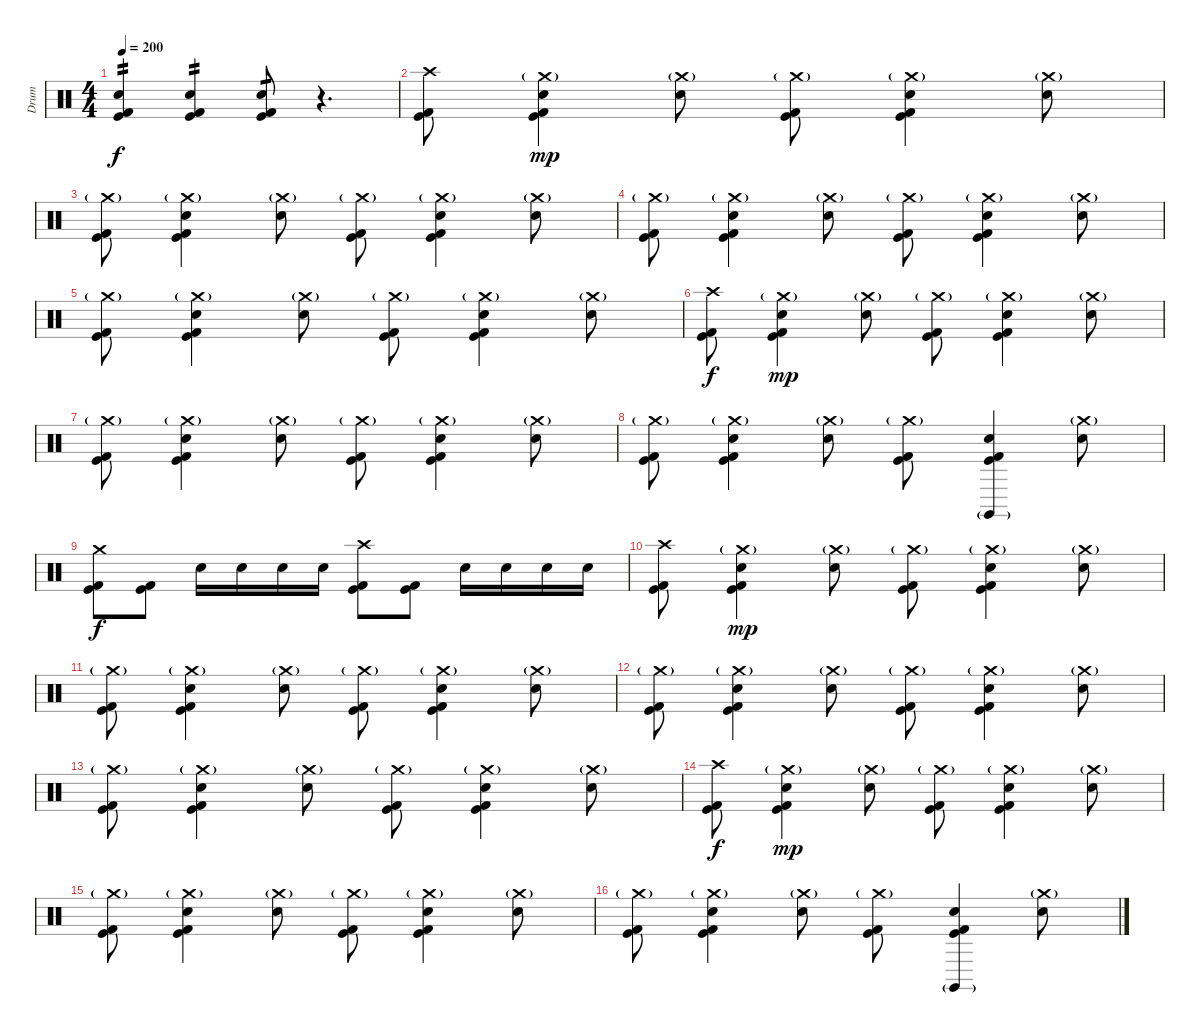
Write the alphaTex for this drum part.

\track ("Drum" "Drum") {instrument percussion}
\staff {score}
\articulation defaults
\ts (4 4)
\tempo 200
\clef neutral
\ks c
("Electric Snare (hit)" "Kick (hit)" "Kick (hit) 2").4{tp 2 dy f} ("Electric Snare (hit)" "Kick (hit)" "Kick (hit) 2").4{tp 2} ("Electric Snare (hit)" "Kick (hit)" "Kick (hit) 2").8{tp 1} r.4{d} |
("Crash high (hit)" "Kick (hit)" "Kick (hit) 2").8 ("Crash medium (hit)"{g} "Electric Snare (hit)" "Kick (hit)" "Kick (hit) 2").4{dy mp} ("Crash medium (hit)"{g} "Electric Snare (hit)").8 ("Crash medium (hit)"{g} "Kick (hit)" "Kick (hit) 2").8 ("Crash medium (hit)"{g} "Electric Snare (hit)" "Kick (hit)" "Kick (hit) 2").4 ("Crash medium (hit)"{g} "Electric Snare (hit)").8 |
("Crash medium (hit)"{g} "Kick (hit)" "Kick (hit) 2").8 ("Crash medium (hit)"{g} "Electric Snare (hit)" "Kick (hit)" "Kick (hit) 2").4 ("Crash medium (hit)"{g} "Electric Snare (hit)").8 ("Crash medium (hit)"{g} "Kick (hit)" "Kick (hit) 2").8 ("Crash medium (hit)"{g} "Electric Snare (hit)" "Kick (hit)" "Kick (hit) 2").4 ("Crash medium (hit)"{g} "Electric Snare (hit)").8 |
("Crash medium (hit)"{g} "Kick (hit)" "Kick (hit) 2").8 ("Crash medium (hit)"{g} "Electric Snare (hit)" "Kick (hit)" "Kick (hit) 2").4 ("Crash medium (hit)"{g} "Electric Snare (hit)").8 ("Crash medium (hit)"{g} "Kick (hit)" "Kick (hit) 2").8 ("Crash medium (hit)"{g} "Electric Snare (hit)" "Kick (hit)" "Kick (hit) 2").4 ("Crash medium (hit)"{g} "Electric Snare (hit)").8 |
("Crash medium (hit)"{g} "Kick (hit)" "Kick (hit) 2").8 ("Crash medium (hit)"{g} "Electric Snare (hit)" "Kick (hit)" "Kick (hit) 2").4 ("Crash medium (hit)"{g} "Electric Snare (hit)").8 ("Crash medium (hit)"{g} "Kick (hit)" "Kick (hit) 2").8 ("Crash medium (hit)"{g} "Electric Snare (hit)" "Kick (hit)" "Kick (hit) 2").4 ("Crash medium (hit)"{g} "Electric Snare (hit)").8 |
("Crash high (hit)" "Kick (hit)" "Kick (hit) 2").8{dy f} ("Crash medium (hit)"{g} "Electric Snare (hit)" "Kick (hit)" "Kick (hit) 2").4{dy mp} ("Crash medium (hit)"{g} "Electric Snare (hit)").8 ("Crash medium (hit)"{g} "Kick (hit)" "Kick (hit) 2").8 ("Crash medium (hit)"{g} "Electric Snare (hit)" "Kick (hit)" "Kick (hit) 2").4 ("Crash medium (hit)"{g} "Electric Snare (hit)").8 |
("Crash medium (hit)"{g} "Kick (hit)" "Kick (hit) 2").8 ("Crash medium (hit)"{g} "Electric Snare (hit)" "Kick (hit)" "Kick (hit) 2").4 ("Crash medium (hit)"{g} "Electric Snare (hit)").8 ("Crash medium (hit)"{g} "Kick (hit)" "Kick (hit) 2").8 ("Crash medium (hit)"{g} "Electric Snare (hit)" "Kick (hit)" "Kick (hit) 2").4 ("Crash medium (hit)"{g} "Electric Snare (hit)").8 |
("Crash medium (hit)"{g} "Kick (hit)" "Kick (hit) 2").8 ("Crash medium (hit)"{g} "Electric Snare (hit)" "Kick (hit)" "Kick (hit) 2").4 ("Crash medium (hit)"{g} "Electric Snare (hit)").8 ("Crash medium (hit)"{g} "Kick (hit)" "Kick (hit) 2").8 ("Claves (hit)"{g} "Electric Snare (hit)" "Kick (hit)" "Kick (hit) 2").4 ("Crash medium (hit)"{g} "Electric Snare (hit)").8 |
("Crash medium (hit)" "Kick (hit)" "Kick (hit) 2").8{dy f} ("Kick (hit)" "Kick (hit) 2").8 "Electric Snare (hit)".16 "Electric Snare (hit)".16 "Electric Snare (hit)".16 "Electric Snare (hit)".16 ("Crash high (hit)" "Kick (hit)" "Kick (hit) 2").8 ("Kick (hit)" "Kick (hit) 2").8 "Electric Snare (hit)".16 "Electric Snare (hit)".16 "Electric Snare (hit)".16 "Electric Snare (hit)".16 |
("Crash high (hit)" "Kick (hit)" "Kick (hit) 2").8 ("Crash medium (hit)"{g} "Electric Snare (hit)" "Kick (hit)" "Kick (hit) 2").4{dy mp} ("Crash medium (hit)"{g} "Electric Snare (hit)").8 ("Crash medium (hit)"{g} "Kick (hit)" "Kick (hit) 2").8 ("Crash medium (hit)"{g} "Electric Snare (hit)" "Kick (hit)" "Kick (hit) 2").4 ("Crash medium (hit)"{g} "Electric Snare (hit)").8 |
("Crash medium (hit)"{g} "Kick (hit)" "Kick (hit) 2").8 ("Crash medium (hit)"{g} "Electric Snare (hit)" "Kick (hit)" "Kick (hit) 2").4 ("Crash medium (hit)"{g} "Electric Snare (hit)").8 ("Crash medium (hit)"{g} "Kick (hit)" "Kick (hit) 2").8 ("Crash medium (hit)"{g} "Electric Snare (hit)" "Kick (hit)" "Kick (hit) 2").4 ("Crash medium (hit)"{g} "Electric Snare (hit)").8 |
("Crash medium (hit)"{g} "Kick (hit)" "Kick (hit) 2").8 ("Crash medium (hit)"{g} "Electric Snare (hit)" "Kick (hit)" "Kick (hit) 2").4 ("Crash medium (hit)"{g} "Electric Snare (hit)").8 ("Crash medium (hit)"{g} "Kick (hit)" "Kick (hit) 2").8 ("Crash medium (hit)"{g} "Electric Snare (hit)" "Kick (hit)" "Kick (hit) 2").4 ("Crash medium (hit)"{g} "Electric Snare (hit)").8 |
("Crash medium (hit)"{g} "Kick (hit)" "Kick (hit) 2").8 ("Crash medium (hit)"{g} "Electric Snare (hit)" "Kick (hit)" "Kick (hit) 2").4 ("Crash medium (hit)"{g} "Electric Snare (hit)").8 ("Crash medium (hit)"{g} "Kick (hit)" "Kick (hit) 2").8 ("Crash medium (hit)"{g} "Electric Snare (hit)" "Kick (hit)" "Kick (hit) 2").4 ("Crash medium (hit)"{g} "Electric Snare (hit)").8 |
("Crash high (hit)" "Kick (hit)" "Kick (hit) 2").8{dy f} ("Crash medium (hit)"{g} "Electric Snare (hit)" "Kick (hit)" "Kick (hit) 2").4{dy mp} ("Crash medium (hit)"{g} "Electric Snare (hit)").8 ("Crash medium (hit)"{g} "Kick (hit)" "Kick (hit) 2").8 ("Crash medium (hit)"{g} "Electric Snare (hit)" "Kick (hit)" "Kick (hit) 2").4 ("Crash medium (hit)"{g} "Electric Snare (hit)").8 |
("Crash medium (hit)"{g} "Kick (hit)" "Kick (hit) 2").8 ("Crash medium (hit)"{g} "Electric Snare (hit)" "Kick (hit)" "Kick (hit) 2").4 ("Crash medium (hit)"{g} "Electric Snare (hit)").8 ("Crash medium (hit)"{g} "Kick (hit)" "Kick (hit) 2").8 ("Crash medium (hit)"{g} "Electric Snare (hit)" "Kick (hit)" "Kick (hit) 2").4 ("Crash medium (hit)"{g} "Electric Snare (hit)").8 |
("Crash medium (hit)"{g} "Kick (hit)" "Kick (hit) 2").8 ("Crash medium (hit)"{g} "Electric Snare (hit)" "Kick (hit)" "Kick (hit) 2").4 ("Crash medium (hit)"{g} "Electric Snare (hit)").8 ("Crash medium (hit)"{g} "Kick (hit)" "Kick (hit) 2").8 ("Claves (hit)"{g} "Electric Snare (hit)" "Kick (hit)" "Kick (hit) 2").4 ("Crash medium (hit)"{g} "Electric Snare (hit)").8
